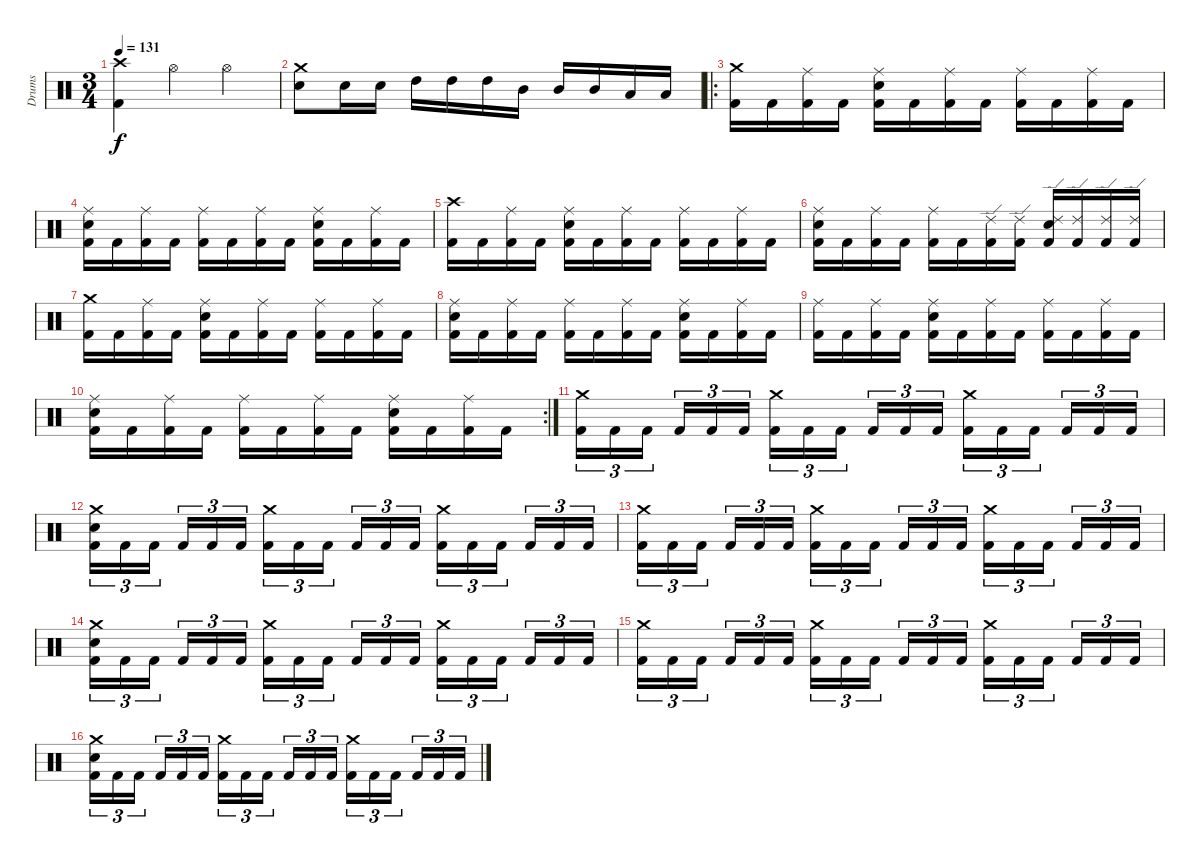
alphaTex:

\track ("Drums" "Drums") {instrument percussion}
\staff {score}
\articulation defaults
\ts (3 4)
\tempo 131
\clef neutral
\ks c
("Kick (hit) 2" "Crash high (hit)").4{dy f} "Hi-Hat (open)".4 "Hi-Hat (open)".4 |
("Electric Snare (hit)" "Crash medium (hit)").8 "Electric Snare (hit)".16 "Electric Snare (hit)".16 "High Tom (hit)".16 "High Tom (hit)".16 "High Tom (hit)".16 "Mid Tom (hit)".16 "Mid Tom (hit)".16 "Mid Tom (hit)".16 "Low Tom (hit)".16 "Low Tom (hit)".16 |
\ro
("Kick (hit) 2" "Crash medium (hit)").16 "Kick (hit) 2".16 ("Kick (hit) 2" "Ride (middle)").16 "Kick (hit) 2".16 ("Kick (hit) 2" "Electric Snare (hit)" "Ride (middle)").16 "Kick (hit) 2".16 ("Kick (hit) 2" "Ride (middle)").16 "Kick (hit) 2".16 ("Kick (hit) 2" "Ride (middle)").16 "Kick (hit) 2".16 ("Kick (hit) 2" "Ride (middle)").16 "Kick (hit) 2".16 |
("Kick (hit) 2" "Electric Snare (hit)" "Ride (middle)").16 "Kick (hit) 2".16 ("Kick (hit) 2" "Ride (middle)").16 "Kick (hit) 2".16 ("Kick (hit) 2" "Ride (middle)").16 "Kick (hit) 2".16 ("Kick (hit) 2" "Ride (middle)").16 "Kick (hit) 2".16 ("Kick (hit) 2" "Electric Snare (hit)" "Ride (middle)").16 "Kick (hit) 2".16 ("Kick (hit) 2" "Ride (middle)").16 "Kick (hit) 2".16 |
("Kick (hit) 2" "Crash high (hit)").16 "Kick (hit) 2".16 ("Kick (hit) 2" "Ride (middle)").16 "Kick (hit) 2".16 ("Kick (hit) 2" "Electric Snare (hit)" "Ride (middle)").16 "Kick (hit) 2".16 ("Kick (hit) 2" "Ride (middle)").16 "Kick (hit) 2".16 ("Kick (hit) 2" "Ride (middle)").16 "Kick (hit) 2".16 ("Kick (hit) 2" "Ride (middle)").16 "Kick (hit) 2".16 |
("Kick (hit) 2" "Electric Snare (hit)" "Ride (middle)").16 "Kick (hit) 2".16 ("Kick (hit) 2" "Ride (middle)").16 "Kick (hit) 2".16 ("Kick (hit) 2" "Ride (middle)").16 "Kick (hit) 2".16 ("Kick (hit) 2" "Ride (edge) 2").16 ("Kick (hit) 2" "Ride (edge) 2").16 ("Kick (hit) 2" "Electric Snare (hit)" "Ride (edge) 2").16 ("Kick (hit) 2" "Ride (edge) 2").16 ("Kick (hit) 2" "Ride (edge) 2").16 ("Kick (hit) 2" "Ride (edge) 2").16 |
("Kick (hit) 2" "Crash medium (hit)").16 "Kick (hit) 2".16 ("Kick (hit) 2" "Ride (middle)").16 "Kick (hit) 2".16 ("Kick (hit) 2" "Electric Snare (hit)" "Ride (middle)").16 "Kick (hit) 2".16 ("Kick (hit) 2" "Ride (middle)").16 "Kick (hit) 2".16 ("Kick (hit) 2" "Ride (middle)").16 "Kick (hit) 2".16 ("Kick (hit) 2" "Ride (middle)").16 "Kick (hit) 2".16 |
("Kick (hit) 2" "Electric Snare (hit)" "Ride (middle)").16 "Kick (hit) 2".16 ("Kick (hit) 2" "Ride (middle)").16 "Kick (hit) 2".16 ("Kick (hit) 2" "Ride (middle)").16 "Kick (hit) 2".16 ("Kick (hit) 2" "Ride (middle)").16 "Kick (hit) 2".16 ("Kick (hit) 2" "Electric Snare (hit)" "Ride (middle)").16 "Kick (hit) 2".16 ("Kick (hit) 2" "Ride (middle)").16 "Kick (hit) 2".16 |
("Kick (hit) 2" "Ride (middle)").16 "Kick (hit) 2".16 ("Kick (hit) 2" "Ride (middle)").16 "Kick (hit) 2".16 ("Kick (hit) 2" "Electric Snare (hit)" "Ride (middle)").16 "Kick (hit) 2".16 ("Kick (hit) 2" "Ride (middle)").16 "Kick (hit) 2".16 ("Kick (hit) 2" "Ride (middle)").16 "Kick (hit) 2".16 ("Kick (hit) 2" "Ride (middle)").16 "Kick (hit) 2".16 |
\rc 2
("Kick (hit) 2" "Electric Snare (hit)" "Ride (middle)").16 "Kick (hit) 2".16 ("Kick (hit) 2" "Ride (middle)").16 "Kick (hit) 2".16 ("Kick (hit) 2" "Ride (middle)").16 "Kick (hit) 2".16 ("Kick (hit) 2" "Ride (middle)").16 "Kick (hit) 2".16 ("Kick (hit) 2" "Electric Snare (hit)" "Ride (middle)").16 "Kick (hit) 2".16 ("Kick (hit) 2" "Ride (middle)").16 "Kick (hit) 2".16 |
("Kick (hit) 2" "Crash medium (hit)").16{tu (3 2)} "Kick (hit) 2".16{tu (3 2)} "Kick (hit) 2".16{tu (3 2)} "Kick (hit) 2".16{tu (3 2)} "Kick (hit) 2".16{tu (3 2)} "Kick (hit) 2".16{tu (3 2)} ("Kick (hit) 2" "Crash medium (hit)").16{tu (3 2)} "Kick (hit) 2".16{tu (3 2)} "Kick (hit) 2".16{tu (3 2)} "Kick (hit) 2".16{tu (3 2)} "Kick (hit) 2".16{tu (3 2)} "Kick (hit) 2".16{tu (3 2)} ("Kick (hit) 2" "Crash medium (hit)").16{tu (3 2)} "Kick (hit) 2".16{tu (3 2)} "Kick (hit) 2".16{tu (3 2)} "Kick (hit) 2".16{tu (3 2)} "Kick (hit) 2".16{tu (3 2)} "Kick (hit) 2".16{tu (3 2)} |
("Kick (hit) 2" "Electric Snare (hit)" "Crash medium (hit)").16{tu (3 2)} "Kick (hit) 2".16{tu (3 2)} "Kick (hit) 2".16{tu (3 2)} "Kick (hit) 2".16{tu (3 2)} "Kick (hit) 2".16{tu (3 2)} "Kick (hit) 2".16{tu (3 2)} ("Kick (hit) 2" "Crash medium (hit)").16{tu (3 2)} "Kick (hit) 2".16{tu (3 2)} "Kick (hit) 2".16{tu (3 2)} "Kick (hit) 2".16{tu (3 2)} "Kick (hit) 2".16{tu (3 2)} "Kick (hit) 2".16{tu (3 2)} ("Kick (hit) 2" "Crash medium (hit)").16{tu (3 2)} "Kick (hit) 2".16{tu (3 2)} "Kick (hit) 2".16{tu (3 2)} "Kick (hit) 2".16{tu (3 2)} "Kick (hit) 2".16{tu (3 2)} "Kick (hit) 2".16{tu (3 2)} |
("Kick (hit) 2" "Crash medium (hit)").16{tu (3 2)} "Kick (hit) 2".16{tu (3 2)} "Kick (hit) 2".16{tu (3 2)} "Kick (hit) 2".16{tu (3 2)} "Kick (hit) 2".16{tu (3 2)} "Kick (hit) 2".16{tu (3 2)} ("Kick (hit) 2" "Crash medium (hit)").16{tu (3 2)} "Kick (hit) 2".16{tu (3 2)} "Kick (hit) 2".16{tu (3 2)} "Kick (hit) 2".16{tu (3 2)} "Kick (hit) 2".16{tu (3 2)} "Kick (hit) 2".16{tu (3 2)} ("Kick (hit) 2" "Crash medium (hit)").16{tu (3 2)} "Kick (hit) 2".16{tu (3 2)} "Kick (hit) 2".16{tu (3 2)} "Kick (hit) 2".16{tu (3 2)} "Kick (hit) 2".16{tu (3 2)} "Kick (hit) 2".16{tu (3 2)} |
("Kick (hit) 2" "Electric Snare (hit)" "Crash medium (hit)").16{tu (3 2)} "Kick (hit) 2".16{tu (3 2)} "Kick (hit) 2".16{tu (3 2)} "Kick (hit) 2".16{tu (3 2)} "Kick (hit) 2".16{tu (3 2)} "Kick (hit) 2".16{tu (3 2)} ("Kick (hit) 2" "Crash medium (hit)").16{tu (3 2)} "Kick (hit) 2".16{tu (3 2)} "Kick (hit) 2".16{tu (3 2)} "Kick (hit) 2".16{tu (3 2)} "Kick (hit) 2".16{tu (3 2)} "Kick (hit) 2".16{tu (3 2)} ("Kick (hit) 2" "Crash medium (hit)").16{tu (3 2)} "Kick (hit) 2".16{tu (3 2)} "Kick (hit) 2".16{tu (3 2)} "Kick (hit) 2".16{tu (3 2)} "Kick (hit) 2".16{tu (3 2)} "Kick (hit) 2".16{tu (3 2)} |
("Kick (hit) 2" "Crash medium (hit)").16{tu (3 2)} "Kick (hit) 2".16{tu (3 2)} "Kick (hit) 2".16{tu (3 2)} "Kick (hit) 2".16{tu (3 2)} "Kick (hit) 2".16{tu (3 2)} "Kick (hit) 2".16{tu (3 2)} ("Kick (hit) 2" "Crash medium (hit)").16{tu (3 2)} "Kick (hit) 2".16{tu (3 2)} "Kick (hit) 2".16{tu (3 2)} "Kick (hit) 2".16{tu (3 2)} "Kick (hit) 2".16{tu (3 2)} "Kick (hit) 2".16{tu (3 2)} ("Kick (hit) 2" "Crash medium (hit)").16{tu (3 2)} "Kick (hit) 2".16{tu (3 2)} "Kick (hit) 2".16{tu (3 2)} "Kick (hit) 2".16{tu (3 2)} "Kick (hit) 2".16{tu (3 2)} "Kick (hit) 2".16{tu (3 2)} |
("Kick (hit) 2" "Electric Snare (hit)" "Crash medium (hit)").16{tu (3 2)} "Kick (hit) 2".16{tu (3 2)} "Kick (hit) 2".16{tu (3 2)} "Kick (hit) 2".16{tu (3 2)} "Kick (hit) 2".16{tu (3 2)} "Kick (hit) 2".16{tu (3 2)} ("Kick (hit) 2" "Crash medium (hit)").16{tu (3 2)} "Kick (hit) 2".16{tu (3 2)} "Kick (hit) 2".16{tu (3 2)} "Kick (hit) 2".16{tu (3 2)} "Kick (hit) 2".16{tu (3 2)} "Kick (hit) 2".16{tu (3 2)} ("Kick (hit) 2" "Crash medium (hit)").16{tu (3 2)} "Kick (hit) 2".16{tu (3 2)} "Kick (hit) 2".16{tu (3 2)} "Kick (hit) 2".16{tu (3 2)} "Kick (hit) 2".16{tu (3 2)} "Kick (hit) 2".16{tu (3 2)}
